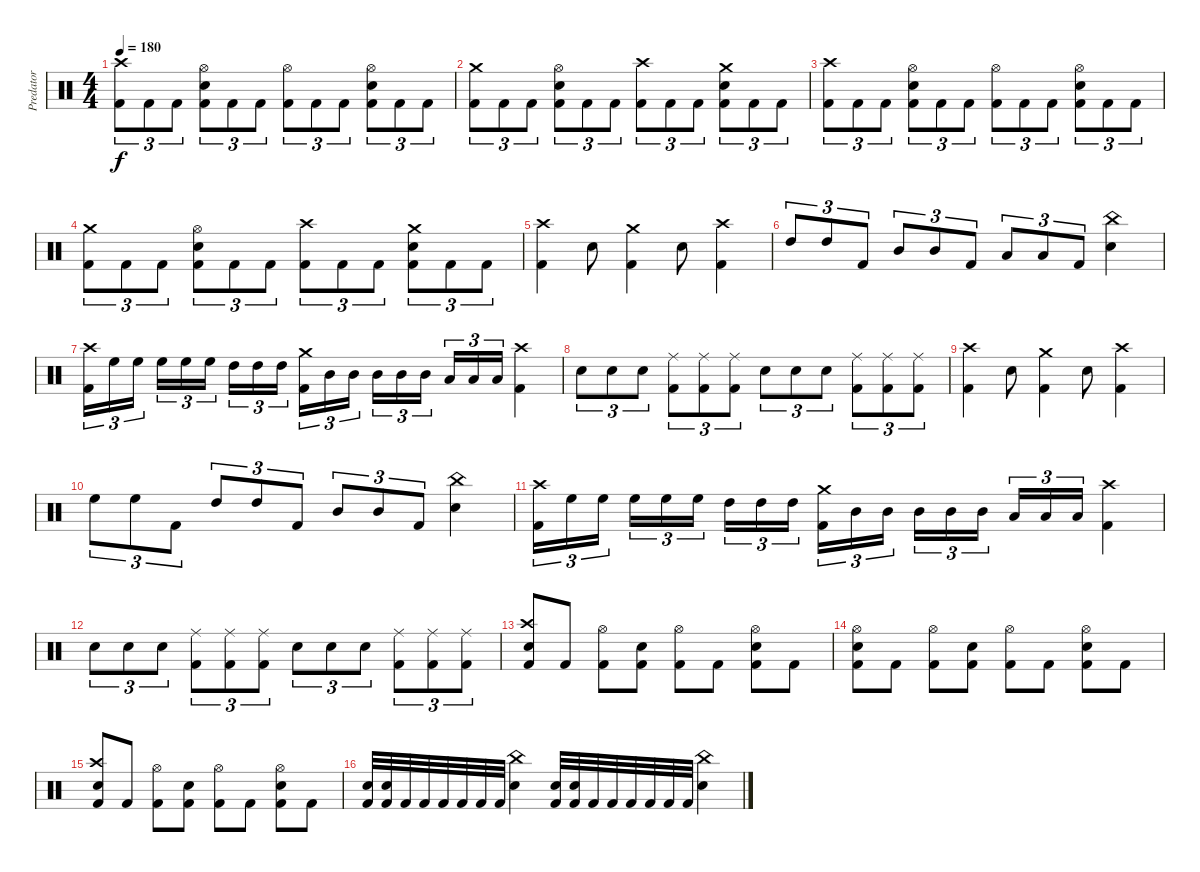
\track ("Predator" "Predator") {instrument percussion}
\staff {score}
\articulation defaults
\ts (4 4)
\tempo 180
\clef neutral
\ks c
("Kick (hit) 2" "Crash high (hit)").8{tu (3 2) dy f} "Kick (hit) 2".8{tu (3 2)} "Kick (hit) 2".8{tu (3 2)} ("Kick (hit) 2" "Electric Snare (hit)" "Hi-Hat (open)").8{tu (3 2)} "Kick (hit) 2".8{tu (3 2)} "Kick (hit) 2".8{tu (3 2)} ("Kick (hit) 2" "Hi-Hat (open)").8{tu (3 2)} "Kick (hit) 2".8{tu (3 2)} "Kick (hit) 2".8{tu (3 2)} ("Kick (hit) 2" "Electric Snare (hit)" "Hi-Hat (open)").8{tu (3 2)} "Kick (hit) 2".8{tu (3 2)} "Kick (hit) 2".8{tu (3 2)} |
("Kick (hit) 2" "Crash medium (hit)").8{tu (3 2)} "Kick (hit) 2".8{tu (3 2)} "Kick (hit) 2".8{tu (3 2)} ("Kick (hit) 2" "Electric Snare (hit)" "Hi-Hat (open)").8{tu (3 2)} "Kick (hit) 2".8{tu (3 2)} "Kick (hit) 2".8{tu (3 2)} ("Kick (hit) 2" "Crash high (hit)").8{tu (3 2)} "Kick (hit) 2".8{tu (3 2)} "Kick (hit) 2".8{tu (3 2)} ("Kick (hit) 2" "Electric Snare (hit)" "Crash medium (hit)").8{tu (3 2)} "Kick (hit) 2".8{tu (3 2)} "Kick (hit) 2".8{tu (3 2)} |
("Kick (hit) 2" "Crash high (hit)").8{tu (3 2)} "Kick (hit) 2".8{tu (3 2)} "Kick (hit) 2".8{tu (3 2)} ("Kick (hit) 2" "Electric Snare (hit)" "Hi-Hat (open)").8{tu (3 2)} "Kick (hit) 2".8{tu (3 2)} "Kick (hit) 2".8{tu (3 2)} ("Kick (hit) 2" "Hi-Hat (open)").8{tu (3 2)} "Kick (hit) 2".8{tu (3 2)} "Kick (hit) 2".8{tu (3 2)} ("Kick (hit) 2" "Electric Snare (hit)" "Hi-Hat (open)").8{tu (3 2)} "Kick (hit) 2".8{tu (3 2)} "Kick (hit) 2".8{tu (3 2)} |
("Kick (hit) 2" "Crash medium (hit)").8{tu (3 2)} "Kick (hit) 2".8{tu (3 2)} "Kick (hit) 2".8{tu (3 2)} ("Kick (hit) 2" "Electric Snare (hit)" "Hi-Hat (open)").8{tu (3 2)} "Kick (hit) 2".8{tu (3 2)} "Kick (hit) 2".8{tu (3 2)} ("Kick (hit) 2" "Crash high (hit)").8{tu (3 2)} "Kick (hit) 2".8{tu (3 2)} "Kick (hit) 2".8{tu (3 2)} ("Kick (hit) 2" "Electric Snare (hit)" "Crash medium (hit)").8{tu (3 2)} "Kick (hit) 2".8{tu (3 2)} "Kick (hit) 2".8{tu (3 2)} |
("Kick (hit) 2" "Crash high (hit)").4 "Electric Snare (hit)".8 ("Kick (hit) 2" "Crash medium (hit)").4 "Electric Snare (hit)".8 ("Kick (hit) 2" "Crash high (hit)").4 |
"High Tom (hit)".8{tu (3 2)} "High Tom (hit)".8{tu (3 2)} "Kick (hit) 2".8{tu (3 2)} "Mid Tom (hit)".8{tu (3 2)} "Mid Tom (hit)".8{tu (3 2)} "Kick (hit) 2".8{tu (3 2)} "Low Tom (hit)".8{tu (3 2)} "Low Tom (hit)".8{tu (3 2)} "Kick (hit) 2".8{tu (3 2)} ("Electric Snare (hit)" "China (hit)").4 |
("Kick (hit) 2" "Crash high (hit)").16{tu (3 2)} "High Floor Tom (hit)".16{tu (3 2)} "High Floor Tom (hit)".16{tu (3 2)} "High Floor Tom (hit)".16{tu (3 2)} "High Floor Tom (hit)".16{tu (3 2)} "High Floor Tom (hit)".16{tu (3 2)} "High Tom (hit)".16{tu (3 2)} "High Tom (hit)".16{tu (3 2)} "High Tom (hit)".16{tu (3 2)} ("Kick (hit) 2" "Crash medium (hit)").16{tu (3 2)} "Mid Tom (hit)".16{tu (3 2)} "Mid Tom (hit)".16{tu (3 2)} "Mid Tom (hit)".16{tu (3 2)} "Mid Tom (hit)".16{tu (3 2)} "Mid Tom (hit)".16{tu (3 2)} "Low Tom (hit)".16{tu (3 2)} "Low Tom (hit)".16{tu (3 2)} "Low Tom (hit)".16{tu (3 2)} ("Kick (hit) 2" "Crash high (hit)").4 |
"Electric Snare (hit)".8{tu (3 2)} "Electric Snare (hit)".8{tu (3 2)} "Electric Snare (hit)".8{tu (3 2)} ("Kick (hit) 2" "Ride (middle)").8{tu (3 2)} ("Kick (hit) 2" "Ride (middle)").8{tu (3 2)} ("Kick (hit) 2" "Ride (middle)").8{tu (3 2)} "Electric Snare (hit)".8{tu (3 2)} "Electric Snare (hit)".8{tu (3 2)} "Electric Snare (hit)".8{tu (3 2)} ("Kick (hit) 2" "Ride (middle)").8{tu (3 2)} ("Kick (hit) 2" "Ride (middle)").8{tu (3 2)} ("Kick (hit) 2" "Ride (middle)").8{tu (3 2)} |
("Kick (hit) 2" "Crash high (hit)").4 "Electric Snare (hit)".8 ("Kick (hit) 2" "Crash medium (hit)").4 "Electric Snare (hit)".8 ("Kick (hit) 2" "Crash high (hit)").4 |
"High Floor Tom (hit)".8{tu (3 2)} "High Floor Tom (hit)".8{tu (3 2)} "Kick (hit) 2".8{tu (3 2)} "High Tom (hit)".8{tu (3 2)} "High Tom (hit)".8{tu (3 2)} "Kick (hit) 2".8{tu (3 2)} "Mid Tom (hit)".8{tu (3 2)} "Mid Tom (hit)".8{tu (3 2)} "Kick (hit) 2".8{tu (3 2)} ("Electric Snare (hit)" "China (hit)").4 |
("Kick (hit) 2" "Crash high (hit)").16{tu (3 2)} "High Floor Tom (hit)".16{tu (3 2)} "High Floor Tom (hit)".16{tu (3 2)} "High Floor Tom (hit)".16{tu (3 2)} "High Floor Tom (hit)".16{tu (3 2)} "High Floor Tom (hit)".16{tu (3 2)} "High Tom (hit)".16{tu (3 2)} "High Tom (hit)".16{tu (3 2)} "High Tom (hit)".16{tu (3 2)} ("Kick (hit) 2" "Crash medium (hit)").16{tu (3 2)} "Mid Tom (hit)".16{tu (3 2)} "Mid Tom (hit)".16{tu (3 2)} "Mid Tom (hit)".16{tu (3 2)} "Mid Tom (hit)".16{tu (3 2)} "Mid Tom (hit)".16{tu (3 2)} "Low Tom (hit)".16{tu (3 2)} "Low Tom (hit)".16{tu (3 2)} "Low Tom (hit)".16{tu (3 2)} ("Kick (hit) 2" "Crash high (hit)").4 |
"Electric Snare (hit)".8{tu (3 2)} "Electric Snare (hit)".8{tu (3 2)} "Electric Snare (hit)".8{tu (3 2)} ("Kick (hit) 2" "Ride (middle)").8{tu (3 2)} ("Kick (hit) 2" "Ride (middle)").8{tu (3 2)} ("Kick (hit) 2" "Ride (middle)").8{tu (3 2)} "Electric Snare (hit)".8{tu (3 2)} "Electric Snare (hit)".8{tu (3 2)} "Electric Snare (hit)".8{tu (3 2)} ("Kick (hit) 2" "Ride (middle)").8{tu (3 2)} ("Kick (hit) 2" "Ride (middle)").8{tu (3 2)} ("Kick (hit) 2" "Ride (middle)").8{tu (3 2)} |
("Kick (hit) 2" "Electric Snare (hit)" "Crash high (hit)").8 "Kick (hit) 2".8 ("Kick (hit) 2" "Hi-Hat (open)").8 ("Kick (hit) 2" "Electric Snare (hit)").8 ("Kick (hit) 2" "Hi-Hat (open)").8 "Kick (hit) 2".8 ("Kick (hit) 2" "Electric Snare (hit)" "Hi-Hat (open)").8 "Kick (hit) 2".8 |
("Kick (hit) 2" "Electric Snare (hit)" "Hi-Hat (open)").8 "Kick (hit) 2".8 ("Kick (hit) 2" "Hi-Hat (open)").8 ("Kick (hit) 2" "Electric Snare (hit)").8 ("Kick (hit) 2" "Hi-Hat (open)").8 "Kick (hit) 2".8 ("Kick (hit) 2" "Electric Snare (hit)" "Hi-Hat (open)").8 "Kick (hit) 2".8 |
("Kick (hit) 2" "Electric Snare (hit)" "Crash high (hit)").8 "Kick (hit) 2".8 ("Kick (hit) 2" "Hi-Hat (open)").8 ("Kick (hit) 2" "Electric Snare (hit)").8 ("Kick (hit) 2" "Hi-Hat (open)").8 "Kick (hit) 2".8 ("Kick (hit) 2" "Electric Snare (hit)" "Hi-Hat (open)").8 "Kick (hit) 2".8 |
("Kick (hit) 2" "Electric Snare (hit)").32 ("Kick (hit) 2" "Electric Snare (hit)").32 "Kick (hit) 2".32 "Kick (hit) 2".32 "Kick (hit) 2".32 "Kick (hit) 2".32 "Kick (hit) 2".32 "Kick (hit) 2".32 ("Electric Snare (hit)" "China (hit)").4 ("Kick (hit) 2" "Electric Snare (hit)").32 ("Kick (hit) 2" "Electric Snare (hit)").32 "Kick (hit) 2".32 "Kick (hit) 2".32 "Kick (hit) 2".32 "Kick (hit) 2".32 "Kick (hit) 2".32 "Kick (hit) 2".32 ("Electric Snare (hit)" "China (hit)").4
